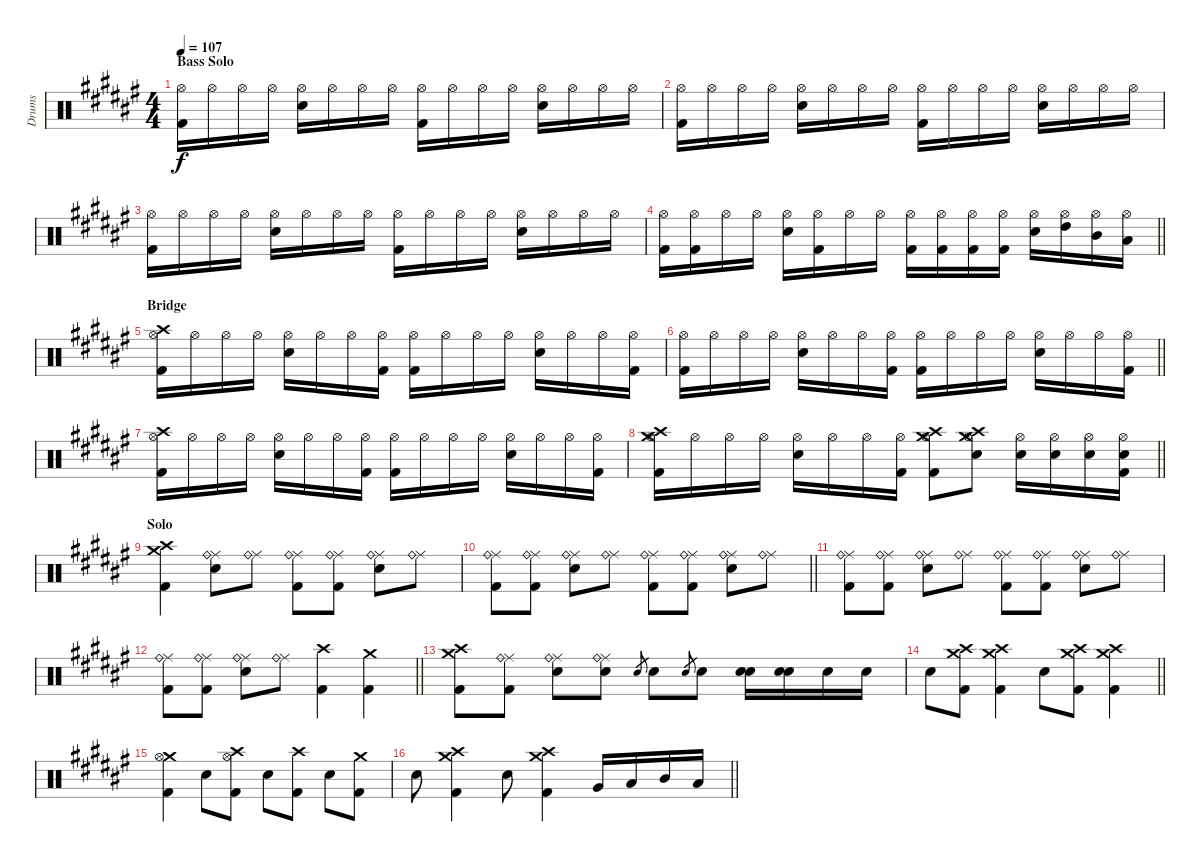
\track ("Drums" "Drums") {instrument percussion}
\staff {score}
\articulation defaults
\ts (4 4)
\section ("" "Bass Solo")
\tempo 107
\clef neutral
\ks f#
("Hi-Hat (open)" "Kick (hit) 2").16{dy f} "Hi-Hat (open)".16 "Hi-Hat (open)".16 "Hi-Hat (open)".16 ("Hi-Hat (open)" "Snare (hit) 2").16 "Hi-Hat (open)".16 "Hi-Hat (open)".16 "Hi-Hat (open)".16 ("Hi-Hat (open)" "Kick (hit) 2").16 "Hi-Hat (open)".16 "Hi-Hat (open)".16 "Hi-Hat (open)".16 ("Hi-Hat (open)" "Snare (hit) 2").16 "Hi-Hat (open)".16 "Hi-Hat (open)".16 "Hi-Hat (open)".16 |
("Hi-Hat (open)" "Kick (hit) 2").16 "Hi-Hat (open)".16 "Hi-Hat (open)".16 "Hi-Hat (open)".16 ("Hi-Hat (open)" "Snare (hit) 2").16 "Hi-Hat (open)".16 "Hi-Hat (open)".16 "Hi-Hat (open)".16 ("Hi-Hat (open)" "Kick (hit) 2").16 "Hi-Hat (open)".16 "Hi-Hat (open)".16 "Hi-Hat (open)".16 ("Hi-Hat (open)" "Snare (hit) 2").16 "Hi-Hat (open)".16 "Hi-Hat (open)".16 "Hi-Hat (open)".16 |
("Hi-Hat (open)" "Kick (hit) 2").16 "Hi-Hat (open)".16 "Hi-Hat (open)".16 "Hi-Hat (open)".16 ("Hi-Hat (open)" "Snare (hit) 2").16 "Hi-Hat (open)".16 "Hi-Hat (open)".16 "Hi-Hat (open)".16 ("Hi-Hat (open)" "Kick (hit) 2").16 "Hi-Hat (open)".16 "Hi-Hat (open)".16 "Hi-Hat (open)".16 ("Hi-Hat (open)" "Snare (hit) 2").16 "Hi-Hat (open)".16 "Hi-Hat (open)".16 "Hi-Hat (open)".16 |
\barLineRight lightlight
("Hi-Hat (open)" "Kick (hit) 2").16 ("Hi-Hat (open)" "Kick (hit) 2").16 "Hi-Hat (open)".16 "Hi-Hat (open)".16 ("Hi-Hat (open)" "Snare (hit) 2").16 ("Hi-Hat (open)" "Kick (hit) 2").16 "Hi-Hat (open)".16 "Hi-Hat (open)".16 ("Hi-Hat (open)" "Kick (hit) 2").16 ("Hi-Hat (open)" "Kick (hit) 2").16 ("Hi-Hat (open)" "Kick (hit) 2").16 ("Hi-Hat (open)" "Kick (hit) 2").16 ("Hi-Hat (open)" "Snare (hit) 2").16 ("High Tom (hit)" "Hi-Hat (open)").16 ("Mid Tom (hit)" "Hi-Hat (open)").16 ("Low Tom (hit)" "Hi-Hat (open)").16 |
\section ("" "Bridge")
("Crash high (hit)" "Hi-Hat (open)" "Kick (hit) 2").16 "Hi-Hat (open)".16 "Hi-Hat (open)".16 "Hi-Hat (open)".16 ("Hi-Hat (open)" "Snare (hit) 2").16 "Hi-Hat (open)".16 "Hi-Hat (open)".16 ("Hi-Hat (open)" "Kick (hit) 2").16 ("Hi-Hat (open)" "Kick (hit) 2").16 "Hi-Hat (open)".16 "Hi-Hat (open)".16 "Hi-Hat (open)".16 ("Hi-Hat (open)" "Snare (hit) 2").16 "Hi-Hat (open)".16 "Hi-Hat (open)".16 ("Hi-Hat (open)" "Kick (hit) 2").16 |
\barLineRight lightlight
("Hi-Hat (open)" "Kick (hit) 2").16 "Hi-Hat (open)".16 "Hi-Hat (open)".16 "Hi-Hat (open)".16 ("Hi-Hat (open)" "Snare (hit) 2").16 "Hi-Hat (open)".16 "Hi-Hat (open)".16 ("Hi-Hat (open)" "Kick (hit) 2").16 ("Hi-Hat (open)" "Kick (hit) 2").16 "Hi-Hat (open)".16 "Hi-Hat (open)".16 "Hi-Hat (open)".16 ("Hi-Hat (open)" "Snare (hit) 2").16 "Hi-Hat (open)".16 "Hi-Hat (open)".16 ("Hi-Hat (open)" "Kick (hit) 2").16 |
("Crash high (hit)" "Hi-Hat (open)" "Kick (hit) 2").16 "Hi-Hat (open)".16 "Hi-Hat (open)".16 "Hi-Hat (open)".16 ("Hi-Hat (open)" "Snare (hit) 2").16 "Hi-Hat (open)".16 "Hi-Hat (open)".16 ("Hi-Hat (open)" "Kick (hit) 2").16 ("Hi-Hat (open)" "Kick (hit) 2").16 "Hi-Hat (open)".16 "Hi-Hat (open)".16 "Hi-Hat (open)".16 ("Hi-Hat (open)" "Snare (hit) 2").16 "Hi-Hat (open)".16 "Hi-Hat (open)".16 ("Hi-Hat (open)" "Kick (hit) 2").16 |
\barLineRight lightlight
("Crash medium (hit)" "Crash high (hit)" "Hi-Hat (open)" "Kick (hit) 2").16 "Hi-Hat (open)".16 "Hi-Hat (open)".16 "Hi-Hat (open)".16 ("Hi-Hat (open)" "Snare (hit) 2").16 "Hi-Hat (open)".16 "Hi-Hat (open)".16 ("Hi-Hat (open)" "Kick (hit) 2").16 ("Crash high (hit)" "Crash medium (hit)" "Hi-Hat (open)" "Kick (hit) 2").8 ("Crash high (hit)" "Crash medium (hit)" "Hi-Hat (open)" "Electric Snare (hit)").8 ("Hi-Hat (open)" "Electric Snare (hit)").16 ("Hi-Hat (open)" "Electric Snare (hit)").16 ("Hi-Hat (open)" "Electric Snare (hit)").16 ("Hi-Hat (open)" "Electric Snare (hit)" "Kick (hit) 2").16 |
\section ("" "Solo")
("Crash medium (hit)" "Crash high (hit)" "Kick (hit) 2").4 ("Ride (middle)" "Ride (bell)" "Electric Snare (hit)").8 ("Ride (middle)" "Ride (bell)").8 ("Ride (middle)" "Ride (bell)" "Kick (hit) 2").8 ("Ride (middle)" "Ride (bell)" "Kick (hit) 2").8 ("Ride (middle)" "Ride (bell)" "Electric Snare (hit)").8 ("Ride (middle)" "Ride (bell)").8 |
\barLineRight lightlight
("Ride (middle)" "Ride (bell)" "Kick (hit) 2").8 ("Ride (middle)" "Ride (bell)" "Kick (hit) 2").8 ("Ride (middle)" "Ride (bell)" "Electric Snare (hit)").8 ("Ride (middle)" "Ride (bell)").8 ("Ride (middle)" "Ride (bell)" "Kick (hit) 2").8 ("Ride (middle)" "Ride (bell)" "Kick (hit) 2").8 ("Ride (middle)" "Ride (bell)" "Electric Snare (hit)").8 ("Ride (middle)" "Ride (bell)").8 |
("Ride (middle)" "Ride (bell)" "Kick (hit) 2").8 ("Ride (middle)" "Ride (bell)" "Kick (hit) 2").8 ("Ride (middle)" "Ride (bell)" "Electric Snare (hit)").8 ("Ride (middle)" "Ride (bell)").8 ("Ride (middle)" "Ride (bell)" "Kick (hit) 2").8 ("Ride (middle)" "Ride (bell)" "Kick (hit) 2").8 ("Ride (middle)" "Ride (bell)" "Electric Snare (hit)").8 ("Ride (middle)" "Ride (bell)").8 |
\barLineRight lightlight
("Ride (middle)" "Ride (bell)" "Kick (hit) 2").8 ("Ride (middle)" "Ride (bell)" "Kick (hit) 2").8 ("Ride (middle)" "Ride (bell)" "Electric Snare (hit)").8 ("Ride (middle)" "Ride (bell)").8 ("Crash high (hit)" "Kick (hit) 2").4 ("Crash medium (hit)" "Kick (hit) 2").4 |
("Crash medium (hit)" "Crash high (hit)" "Kick (hit) 2").8 ("Ride (middle)" "Ride (bell)" "Kick (hit) 2").8 ("Ride (middle)" "Ride (bell)" "Electric Snare (hit)").8 ("Ride (middle)" "Ride (bell)" "Electric Snare (hit)").8 "Electric Snare (hit)".8{gr} "Electric Snare (hit)".8 "Electric Snare (hit)".8{gr} "Electric Snare (hit)".8 ("Electric Snare (hit)" "Electric Snare (hit)").16 ("Electric Snare (hit)" "Electric Snare (hit)").16 "Electric Snare (hit)".16 "Electric Snare (hit)".16 |
\barLineRight lightlight "Electric Snare (hit)".8
("Crash medium (hit)" "Crash high (hit)" "Kick (hit) 2").8 ("Crash high (hit)" "Crash medium (hit)" "Kick (hit) 2").4 "Electric Snare (hit)".8 ("Crash medium (hit)" "Crash high (hit)" "Kick (hit) 2").8 ("Crash high (hit)" "Crash medium (hit)" "Kick (hit) 2").4 |
("Crash medium (hit)" "Hi-Hat (open)" "Kick (hit) 2").4 "Electric Snare (hit)".8 ("Crash high (hit)" "Hi-Hat (open)" "Kick (hit) 2").8 "Electric Snare (hit)".8 ("Crash high (hit)" "Kick (hit) 2").8 "Electric Snare (hit)".8 ("Crash medium (hit)" "Kick (hit) 2").8 |
\barLineRight lightlight "Electric Snare (hit)".8
("Crash medium (hit)" "Crash high (hit)" "Kick (hit) 2").4 "Electric Snare (hit)".8 ("Crash high (hit)" "Crash medium (hit)" "Kick (hit) 2").4 "Very Low Tom (hit)".16 "Low Tom (hit)".16 "Mid Tom (hit)".16 "Low Tom (hit)".16
